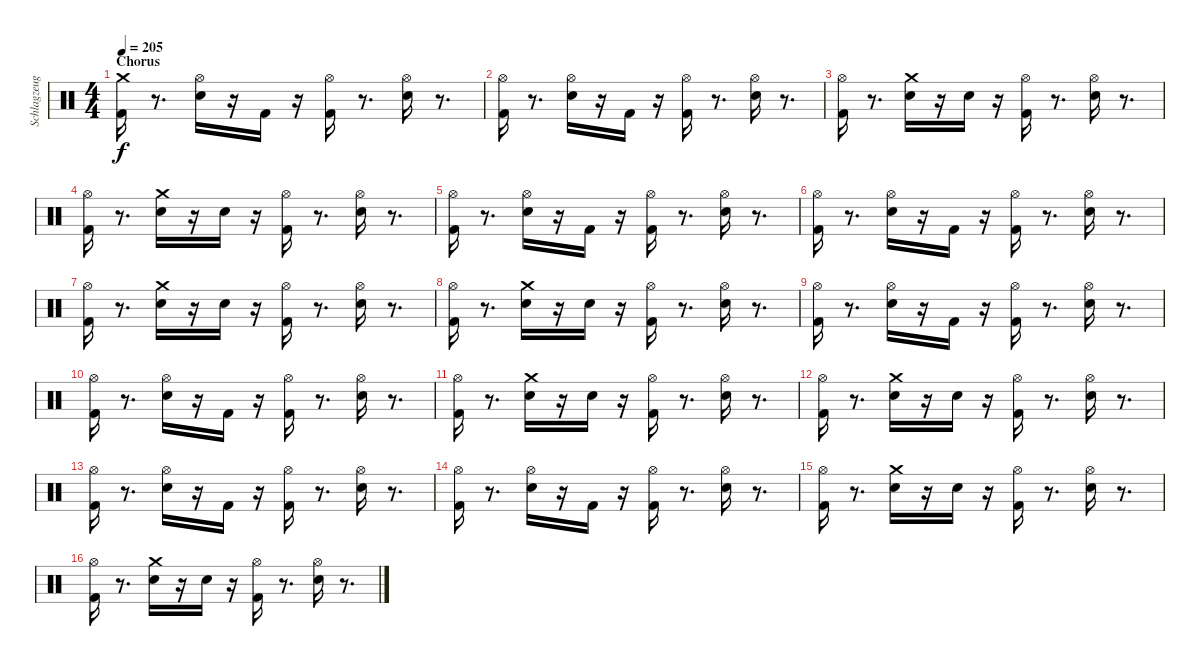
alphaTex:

\track ("Schlagzeug - Bela B." "Schlagzeug") {instrument percussion}
\staff {score}
\articulation defaults
\ts (4 4)
\section ("" "Chorus")
\tempo 205
\clef neutral
\ks c
("Kick (hit) 2" "Crash medium (hit)").16{dy f} r.8{d} ("Electric Snare (hit)" "Hi-Hat (open)").16 r.16 "Kick (hit) 2".16 r.16 ("Kick (hit) 2" "Hi-Hat (open)").16 r.8{d} ("Electric Snare (hit)" "Hi-Hat (open)").16 r.8{d} |
("Kick (hit) 2" "Hi-Hat (open)").16 r.8{d} ("Electric Snare (hit)" "Hi-Hat (open)").16 r.16 "Kick (hit) 2".16 r.16 ("Kick (hit) 2" "Hi-Hat (open)").16 r.8{d} ("Electric Snare (hit)" "Hi-Hat (open)").16 r.8{d} |
("Kick (hit) 2" "Hi-Hat (open)").16 r.8{d} ("Electric Snare (hit)" "Crash medium (hit)").16 r.16 "Electric Snare (hit)".16 r.16 ("Kick (hit) 2" "Hi-Hat (open)").16 r.8{d} ("Electric Snare (hit)" "Hi-Hat (open)").16 r.8{d} |
("Kick (hit) 2" "Hi-Hat (open)").16 r.8{d} ("Electric Snare (hit)" "Crash medium (hit)").16 r.16 "Electric Snare (hit)".16 r.16 ("Kick (hit) 2" "Hi-Hat (open)").16 r.8{d} ("Electric Snare (hit)" "Hi-Hat (open)").16 r.8{d} |
("Kick (hit) 2" "Hi-Hat (open)").16 r.8{d} ("Electric Snare (hit)" "Hi-Hat (open)").16 r.16 "Kick (hit) 2".16 r.16 ("Kick (hit) 2" "Hi-Hat (open)").16 r.8{d} ("Electric Snare (hit)" "Hi-Hat (open)").16 r.8{d} |
("Kick (hit) 2" "Hi-Hat (open)").16 r.8{d} ("Electric Snare (hit)" "Hi-Hat (open)").16 r.16 "Kick (hit) 2".16 r.16 ("Kick (hit) 2" "Hi-Hat (open)").16 r.8{d} ("Electric Snare (hit)" "Hi-Hat (open)").16 r.8{d} |
("Kick (hit) 2" "Hi-Hat (open)").16 r.8{d} ("Electric Snare (hit)" "Crash medium (hit)").16 r.16 "Electric Snare (hit)".16 r.16 ("Kick (hit) 2" "Hi-Hat (open)").16 r.8{d} ("Electric Snare (hit)" "Hi-Hat (open)").16 r.8{d} |
("Kick (hit) 2" "Hi-Hat (open)").16 r.8{d} ("Electric Snare (hit)" "Crash medium (hit)").16 r.16 "Electric Snare (hit)".16 r.16 ("Kick (hit) 2" "Hi-Hat (open)").16 r.8{d} ("Electric Snare (hit)" "Hi-Hat (open)").16 r.8{d} |
("Kick (hit) 2" "Hi-Hat (open)").16 r.8{d} ("Electric Snare (hit)" "Hi-Hat (open)").16 r.16 "Kick (hit) 2".16 r.16 ("Kick (hit) 2" "Hi-Hat (open)").16 r.8{d} ("Electric Snare (hit)" "Hi-Hat (open)").16 r.8{d} |
("Kick (hit) 2" "Hi-Hat (open)").16 r.8{d} ("Electric Snare (hit)" "Hi-Hat (open)").16 r.16 "Kick (hit) 2".16 r.16 ("Kick (hit) 2" "Hi-Hat (open)").16 r.8{d} ("Electric Snare (hit)" "Hi-Hat (open)").16 r.8{d} |
("Kick (hit) 2" "Hi-Hat (open)").16 r.8{d} ("Electric Snare (hit)" "Crash medium (hit)").16 r.16 "Electric Snare (hit)".16 r.16 ("Kick (hit) 2" "Hi-Hat (open)").16 r.8{d} ("Electric Snare (hit)" "Hi-Hat (open)").16 r.8{d} |
("Kick (hit) 2" "Hi-Hat (open)").16 r.8{d} ("Electric Snare (hit)" "Crash medium (hit)").16 r.16 "Electric Snare (hit)".16 r.16 ("Kick (hit) 2" "Hi-Hat (open)").16 r.8{d} ("Electric Snare (hit)" "Hi-Hat (open)").16 r.8{d} |
("Kick (hit) 2" "Hi-Hat (open)").16 r.8{d} ("Electric Snare (hit)" "Hi-Hat (open)").16 r.16 "Kick (hit) 2".16 r.16 ("Kick (hit) 2" "Hi-Hat (open)").16 r.8{d} ("Electric Snare (hit)" "Hi-Hat (open)").16 r.8{d} |
("Kick (hit) 2" "Hi-Hat (open)").16 r.8{d} ("Electric Snare (hit)" "Hi-Hat (open)").16 r.16 "Kick (hit) 2".16 r.16 ("Kick (hit) 2" "Hi-Hat (open)").16 r.8{d} ("Electric Snare (hit)" "Hi-Hat (open)").16 r.8{d} |
("Kick (hit) 2" "Hi-Hat (open)").16 r.8{d} ("Electric Snare (hit)" "Crash medium (hit)").16 r.16 "Electric Snare (hit)".16 r.16 ("Kick (hit) 2" "Hi-Hat (open)").16 r.8{d} ("Electric Snare (hit)" "Hi-Hat (open)").16 r.8{d} |
("Kick (hit) 2" "Hi-Hat (open)").16 r.8{d} ("Electric Snare (hit)" "Crash medium (hit)").16 r.16 "Electric Snare (hit)".16 r.16 ("Kick (hit) 2" "Hi-Hat (open)").16 r.8{d} ("Electric Snare (hit)" "Hi-Hat (open)").16 r.8{d}
